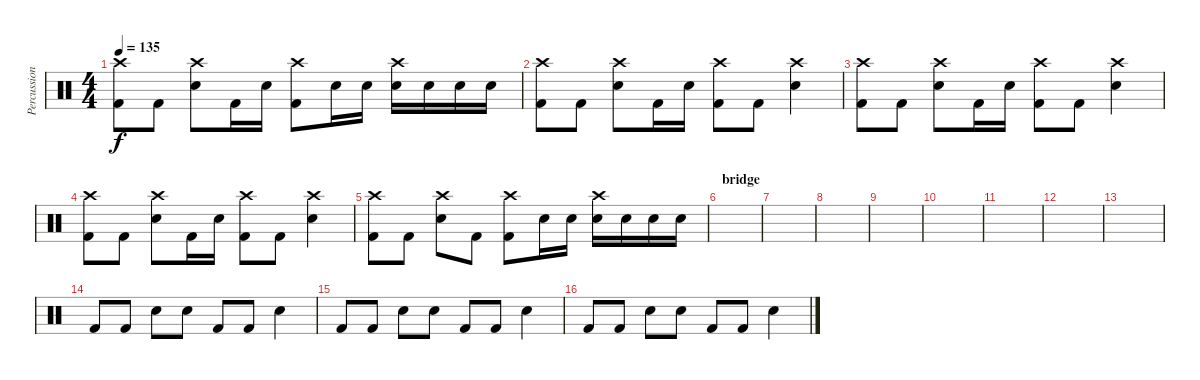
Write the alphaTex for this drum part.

\track ("Percussion" "Percussion") {instrument percussion}
\staff {score}
\articulation defaults
\ts (4 4)
\tempo 135
\clef neutral
\ks c
("Kick (hit) 2" "Crash high (hit)").8{dy f} "Kick (hit) 2".8 ("Snare (hit) 2" "Crash high (hit)").8 "Kick (hit) 2".16 "Snare (hit) 2".16 ("Kick (hit) 2" "Crash high (hit)").8 "Snare (hit) 2".16 "Snare (hit) 2".16 ("Snare (hit) 2" "Crash high (hit)").16 "Snare (hit) 2".16 "Snare (hit) 2".16 "Snare (hit) 2".16 |
("Kick (hit) 2" "Crash high (hit)").8 "Kick (hit) 2".8 ("Snare (hit) 2" "Crash high (hit)").8 "Kick (hit) 2".16 "Snare (hit) 2".16 ("Kick (hit) 2" "Crash high (hit)").8 "Kick (hit) 2".8 ("Snare (hit) 2" "Crash high (hit)").4 |
("Kick (hit) 2" "Crash high (hit)").8 "Kick (hit) 2".8 ("Snare (hit) 2" "Crash high (hit)").8 "Kick (hit) 2".16 "Snare (hit) 2".16 ("Kick (hit) 2" "Crash high (hit)").8 "Kick (hit) 2".8 ("Snare (hit) 2" "Crash high (hit)").4 |
("Kick (hit) 2" "Crash high (hit)").8 "Kick (hit) 2".8 ("Snare (hit) 2" "Crash high (hit)").8 "Kick (hit) 2".16 "Snare (hit) 2".16 ("Kick (hit) 2" "Crash high (hit)").8 "Kick (hit) 2".8 ("Snare (hit) 2" "Crash high (hit)").4 |
("Kick (hit) 2" "Crash high (hit)").8 "Kick (hit) 2".8 ("Snare (hit) 2" "Crash high (hit)").8 "Kick (hit) 2".8 ("Kick (hit) 2" "Crash high (hit)").8 "Snare (hit) 2".16 "Snare (hit) 2".16 ("Snare (hit) 2" "Crash high (hit)").16 "Snare (hit) 2".16 "Snare (hit) 2".16 "Snare (hit) 2".16 |
\section ("" "bridge")
|
|
|
|
|
|
|
|
"Kick (hit) 2".8 "Kick (hit) 2".8 "Snare (hit) 2".8 "Snare (hit) 2".8 "Kick (hit) 2".8 "Kick (hit) 2".8 "Snare (hit) 2".4 |
"Kick (hit) 2".8 "Kick (hit) 2".8 "Snare (hit) 2".8 "Snare (hit) 2".8 "Kick (hit) 2".8 "Kick (hit) 2".8 "Snare (hit) 2".4 |
"Kick (hit) 2".8 "Kick (hit) 2".8 "Snare (hit) 2".8 "Snare (hit) 2".8 "Kick (hit) 2".8 "Kick (hit) 2".8 "Snare (hit) 2".4
